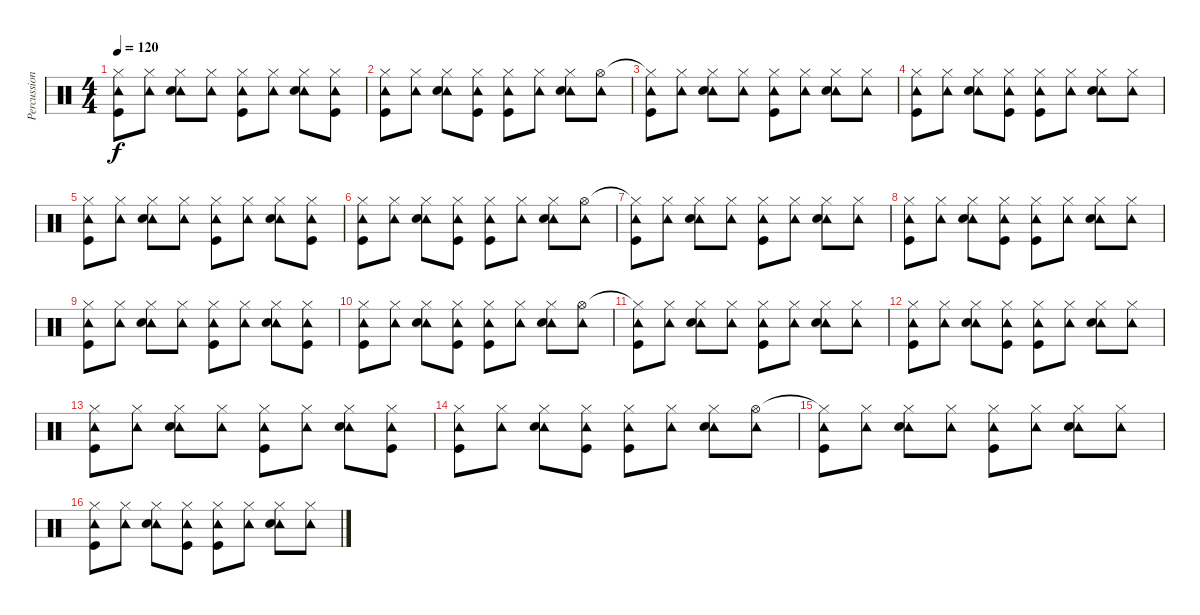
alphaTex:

\track ("Percussion" "Percussion") {instrument percussion}
\staff {score}
\articulation defaults
\ts (4 4)
\tempo 120
\clef neutral
\ks c
("Hi-Hat (closed)" "Tambourine (hit)" "Kick (hit)").8{dy f} ("Hi-Hat (closed)" "Tambourine (hit)").8 ("Hi-Hat (closed)" "Tambourine (hit)" "Snare (hit) 2").8 ("Hi-Hat (closed)" "Tambourine (hit)").8 ("Hi-Hat (closed)" "Tambourine (hit)" "Kick (hit)").8 ("Hi-Hat (closed)" "Tambourine (hit)").8 ("Hi-Hat (closed)" "Tambourine (hit)" "Snare (hit) 2").8 ("Hi-Hat (closed)" "Tambourine (hit)" "Kick (hit)").8 |
("Hi-Hat (closed)" "Tambourine (hit)" "Kick (hit)").8 ("Hi-Hat (closed)" "Tambourine (hit)").8 ("Hi-Hat (closed)" "Tambourine (hit)" "Snare (hit) 2").8 ("Hi-Hat (closed)" "Tambourine (hit)" "Kick (hit)").8 ("Hi-Hat (closed)" "Tambourine (hit)" "Kick (hit)").8 ("Hi-Hat (closed)" "Tambourine (hit)").8 ("Hi-Hat (closed)" "Tambourine (hit)" "Snare (hit) 2").8 ("Hi-Hat (open)" "Tambourine (hit)").8 |
("Hi-Hat (closed)"{t} "Tambourine (hit)" "Kick (hit)").8 ("Hi-Hat (closed)" "Tambourine (hit)").8 ("Hi-Hat (closed)" "Tambourine (hit)" "Snare (hit) 2").8 ("Hi-Hat (closed)" "Tambourine (hit)").8 ("Hi-Hat (closed)" "Tambourine (hit)" "Kick (hit)").8 ("Hi-Hat (closed)" "Tambourine (hit)").8 ("Hi-Hat (closed)" "Tambourine (hit)" "Snare (hit) 2").8 ("Hi-Hat (closed)" "Tambourine (hit)").8 |
("Hi-Hat (closed)" "Tambourine (hit)" "Kick (hit)").8 ("Hi-Hat (closed)" "Tambourine (hit)").8 ("Hi-Hat (closed)" "Tambourine (hit)" "Snare (hit) 2").8 ("Hi-Hat (closed)" "Tambourine (hit)" "Kick (hit)").8 ("Hi-Hat (closed)" "Tambourine (hit)" "Kick (hit)").8 ("Hi-Hat (closed)" "Tambourine (hit)").8 ("Hi-Hat (closed)" "Tambourine (hit)" "Snare (hit) 2").8 ("Hi-Hat (closed)" "Tambourine (hit)").8 |
("Hi-Hat (closed)" "Tambourine (hit)" "Kick (hit)").8 ("Hi-Hat (closed)" "Tambourine (hit)").8 ("Hi-Hat (closed)" "Tambourine (hit)" "Snare (hit) 2").8 ("Hi-Hat (closed)" "Tambourine (hit)").8 ("Hi-Hat (closed)" "Tambourine (hit)" "Kick (hit)").8 ("Hi-Hat (closed)" "Tambourine (hit)").8 ("Hi-Hat (closed)" "Tambourine (hit)" "Snare (hit) 2").8 ("Hi-Hat (closed)" "Tambourine (hit)" "Kick (hit)").8 |
("Hi-Hat (closed)" "Tambourine (hit)" "Kick (hit)").8 ("Hi-Hat (closed)" "Tambourine (hit)").8 ("Hi-Hat (closed)" "Tambourine (hit)" "Snare (hit) 2").8 ("Hi-Hat (closed)" "Tambourine (hit)" "Kick (hit)").8 ("Hi-Hat (closed)" "Tambourine (hit)" "Kick (hit)").8 ("Hi-Hat (closed)" "Tambourine (hit)").8 ("Hi-Hat (closed)" "Tambourine (hit)" "Snare (hit) 2").8 ("Hi-Hat (open)" "Tambourine (hit)").8 |
("Hi-Hat (closed)"{t} "Tambourine (hit)" "Kick (hit)").8 ("Hi-Hat (closed)" "Tambourine (hit)").8 ("Hi-Hat (closed)" "Tambourine (hit)" "Snare (hit) 2").8 ("Hi-Hat (closed)" "Tambourine (hit)").8 ("Hi-Hat (closed)" "Tambourine (hit)" "Kick (hit)").8 ("Hi-Hat (closed)" "Tambourine (hit)").8 ("Hi-Hat (closed)" "Tambourine (hit)" "Snare (hit) 2").8 ("Hi-Hat (closed)" "Tambourine (hit)").8 |
("Hi-Hat (closed)" "Tambourine (hit)" "Kick (hit)").8 ("Hi-Hat (closed)" "Tambourine (hit)").8 ("Hi-Hat (closed)" "Tambourine (hit)" "Snare (hit) 2").8 ("Hi-Hat (closed)" "Tambourine (hit)" "Kick (hit)").8 ("Hi-Hat (closed)" "Tambourine (hit)" "Kick (hit)").8 ("Hi-Hat (closed)" "Tambourine (hit)").8 ("Hi-Hat (closed)" "Tambourine (hit)" "Snare (hit) 2").8 ("Hi-Hat (closed)" "Tambourine (hit)").8 |
("Hi-Hat (closed)" "Tambourine (hit)" "Kick (hit)").8 ("Hi-Hat (closed)" "Tambourine (hit)").8 ("Hi-Hat (closed)" "Tambourine (hit)" "Snare (hit) 2").8 ("Hi-Hat (closed)" "Tambourine (hit)").8 ("Hi-Hat (closed)" "Tambourine (hit)" "Kick (hit)").8 ("Hi-Hat (closed)" "Tambourine (hit)").8 ("Hi-Hat (closed)" "Tambourine (hit)" "Snare (hit) 2").8 ("Hi-Hat (closed)" "Tambourine (hit)" "Kick (hit)").8 |
("Hi-Hat (closed)" "Tambourine (hit)" "Kick (hit)").8 ("Hi-Hat (closed)" "Tambourine (hit)").8 ("Hi-Hat (closed)" "Tambourine (hit)" "Snare (hit) 2").8 ("Hi-Hat (closed)" "Tambourine (hit)" "Kick (hit)").8 ("Hi-Hat (closed)" "Tambourine (hit)" "Kick (hit)").8 ("Hi-Hat (closed)" "Tambourine (hit)").8 ("Hi-Hat (closed)" "Tambourine (hit)" "Snare (hit) 2").8 ("Hi-Hat (open)" "Tambourine (hit)").8 |
("Hi-Hat (closed)"{t} "Tambourine (hit)" "Kick (hit)").8 ("Hi-Hat (closed)" "Tambourine (hit)").8 ("Hi-Hat (closed)" "Tambourine (hit)" "Snare (hit) 2").8 ("Hi-Hat (closed)" "Tambourine (hit)").8 ("Hi-Hat (closed)" "Tambourine (hit)" "Kick (hit)").8 ("Hi-Hat (closed)" "Tambourine (hit)").8 ("Hi-Hat (closed)" "Tambourine (hit)" "Snare (hit) 2").8 ("Hi-Hat (closed)" "Tambourine (hit)").8 |
("Hi-Hat (closed)" "Tambourine (hit)" "Kick (hit)").8 ("Hi-Hat (closed)" "Tambourine (hit)").8 ("Hi-Hat (closed)" "Tambourine (hit)" "Snare (hit) 2").8 ("Hi-Hat (closed)" "Tambourine (hit)" "Kick (hit)").8 ("Hi-Hat (closed)" "Tambourine (hit)" "Kick (hit)").8 ("Hi-Hat (closed)" "Tambourine (hit)").8 ("Hi-Hat (closed)" "Tambourine (hit)" "Snare (hit) 2").8 ("Hi-Hat (closed)" "Tambourine (hit)").8 |
("Hi-Hat (closed)" "Tambourine (hit)" "Kick (hit)").8 ("Hi-Hat (closed)" "Tambourine (hit)").8 ("Hi-Hat (closed)" "Tambourine (hit)" "Snare (hit) 2").8 ("Hi-Hat (closed)" "Tambourine (hit)").8 ("Hi-Hat (closed)" "Tambourine (hit)" "Kick (hit)").8 ("Hi-Hat (closed)" "Tambourine (hit)").8 ("Hi-Hat (closed)" "Tambourine (hit)" "Snare (hit) 2").8 ("Hi-Hat (closed)" "Tambourine (hit)" "Kick (hit)").8 |
("Hi-Hat (closed)" "Tambourine (hit)" "Kick (hit)").8 ("Hi-Hat (closed)" "Tambourine (hit)").8 ("Hi-Hat (closed)" "Tambourine (hit)" "Snare (hit) 2").8 ("Hi-Hat (closed)" "Tambourine (hit)" "Kick (hit)").8 ("Hi-Hat (closed)" "Tambourine (hit)" "Kick (hit)").8 ("Hi-Hat (closed)" "Tambourine (hit)").8 ("Hi-Hat (closed)" "Tambourine (hit)" "Snare (hit) 2").8 ("Hi-Hat (open)" "Tambourine (hit)").8 |
("Hi-Hat (closed)"{t} "Tambourine (hit)" "Kick (hit)").8 ("Hi-Hat (closed)" "Tambourine (hit)").8 ("Hi-Hat (closed)" "Tambourine (hit)" "Snare (hit) 2").8 ("Hi-Hat (closed)" "Tambourine (hit)").8 ("Hi-Hat (closed)" "Tambourine (hit)" "Kick (hit)").8 ("Hi-Hat (closed)" "Tambourine (hit)").8 ("Hi-Hat (closed)" "Tambourine (hit)" "Snare (hit) 2").8 ("Hi-Hat (closed)" "Tambourine (hit)").8 |
("Hi-Hat (closed)" "Tambourine (hit)" "Kick (hit)").8 ("Hi-Hat (closed)" "Tambourine (hit)").8 ("Hi-Hat (closed)" "Tambourine (hit)" "Snare (hit) 2").8 ("Hi-Hat (closed)" "Tambourine (hit)" "Kick (hit)").8 ("Hi-Hat (closed)" "Tambourine (hit)" "Kick (hit)").8 ("Hi-Hat (closed)" "Tambourine (hit)").8 ("Hi-Hat (closed)" "Tambourine (hit)" "Snare (hit) 2").8 ("Hi-Hat (closed)" "Tambourine (hit)").8
